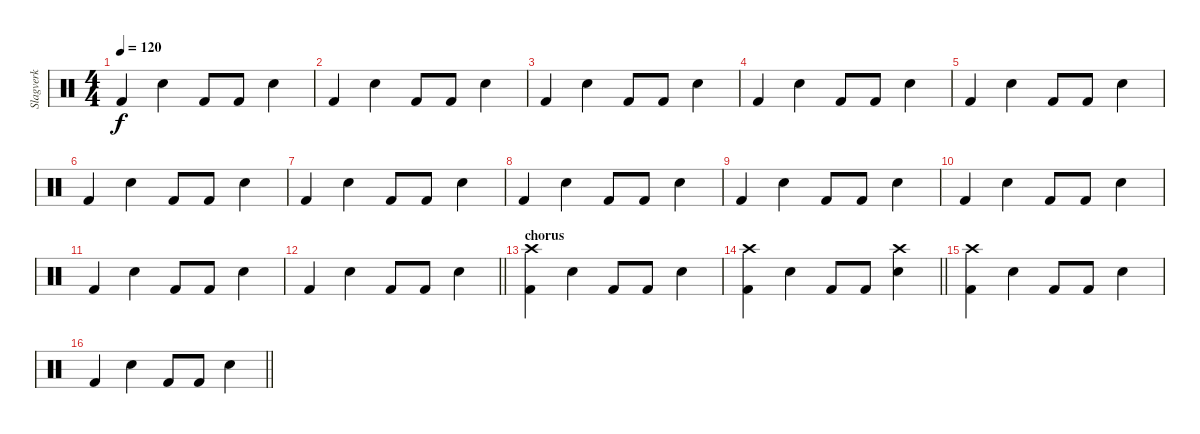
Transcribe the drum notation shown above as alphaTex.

\track ("Slagverk" "Slagverk") {instrument percussion}
\staff {score}
\articulation defaults
\ts (4 4)
\tempo 120
\clef neutral
\ks c "Kick (hit) 2".4{dy f} "Snare (hit) 2".4 "Kick (hit) 2".8 "Kick (hit) 2".8 "Snare (hit) 2".4
|
"Kick (hit) 2".4 "Snare (hit) 2".4 "Kick (hit) 2".8 "Kick (hit) 2".8 "Snare (hit) 2".4 |
"Kick (hit) 2".4 "Snare (hit) 2".4 "Kick (hit) 2".8 "Kick (hit) 2".8 "Snare (hit) 2".4 |
"Kick (hit) 2".4 "Snare (hit) 2".4 "Kick (hit) 2".8 "Kick (hit) 2".8 "Snare (hit) 2".4 |
"Kick (hit) 2".4 "Snare (hit) 2".4 "Kick (hit) 2".8 "Kick (hit) 2".8 "Snare (hit) 2".4 |
"Kick (hit) 2".4 "Snare (hit) 2".4 "Kick (hit) 2".8 "Kick (hit) 2".8 "Snare (hit) 2".4 |
"Kick (hit) 2".4 "Snare (hit) 2".4 "Kick (hit) 2".8 "Kick (hit) 2".8 "Snare (hit) 2".4 |
"Kick (hit) 2".4 "Snare (hit) 2".4 "Kick (hit) 2".8 "Kick (hit) 2".8 "Snare (hit) 2".4 |
"Kick (hit) 2".4 "Snare (hit) 2".4 "Kick (hit) 2".8 "Kick (hit) 2".8 "Snare (hit) 2".4 |
"Kick (hit) 2".4 "Snare (hit) 2".4 "Kick (hit) 2".8 "Kick (hit) 2".8 "Snare (hit) 2".4 |
"Kick (hit) 2".4 "Snare (hit) 2".4 "Kick (hit) 2".8 "Kick (hit) 2".8 "Snare (hit) 2".4 |
\barLineRight lightlight "Kick (hit) 2".4 "Snare (hit) 2".4 "Kick (hit) 2".8 "Kick (hit) 2".8 "Snare (hit) 2".4
|
\section ("" "chorus")
("Kick (hit) 2" "Crash high (hit)").4 "Snare (hit) 2".4 "Kick (hit) 2".8 "Kick (hit) 2".8 "Snare (hit) 2".4 |
\barLineRight lightlight
("Kick (hit) 2" "Crash high (hit)").4 "Snare (hit) 2".4 "Kick (hit) 2".8 "Kick (hit) 2".8 ("Snare (hit) 2" "Crash high (hit)").4 |
("Kick (hit) 2" "Crash high (hit)").4 "Snare (hit) 2".4 "Kick (hit) 2".8 "Kick (hit) 2".8 "Snare (hit) 2".4 |
\barLineRight lightlight "Kick (hit) 2".4 "Snare (hit) 2".4 "Kick (hit) 2".8 "Kick (hit) 2".8 "Snare (hit) 2".4
